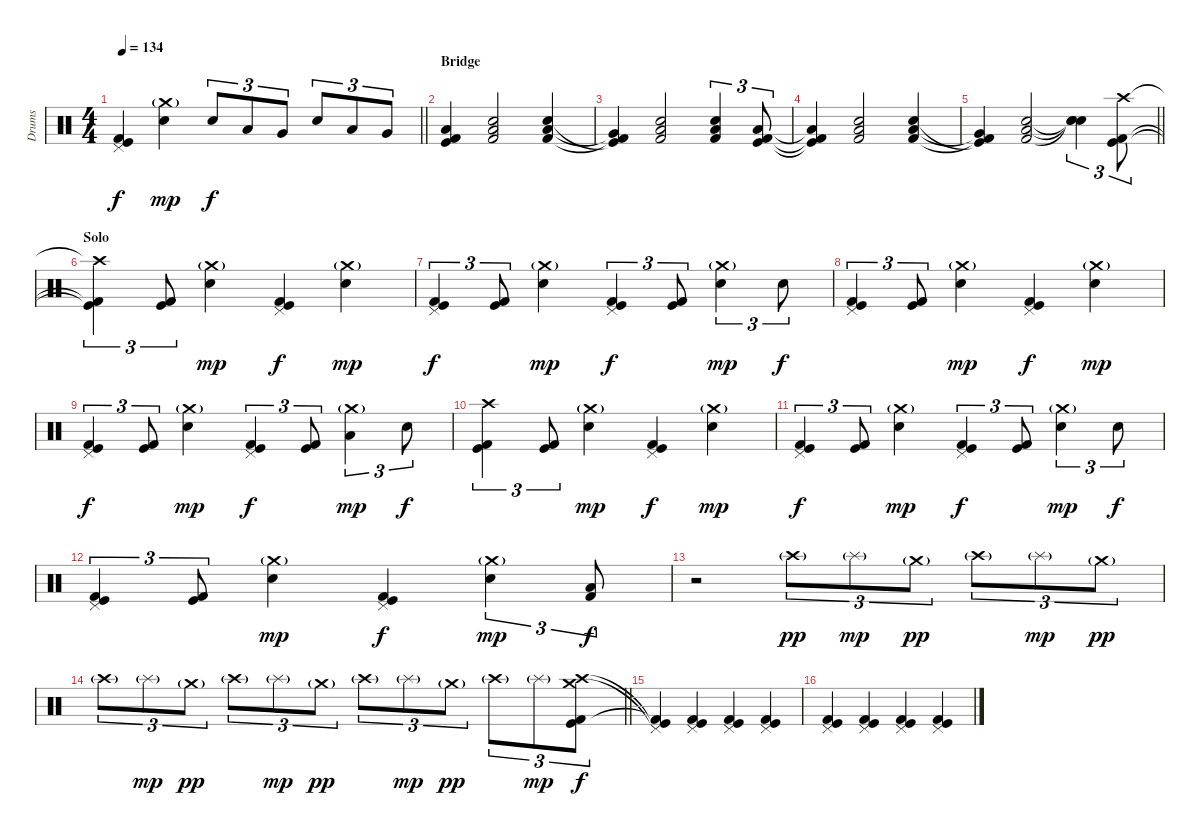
\track ("Drums" "Drums") {instrument percussion}
\staff {score}
\articulation defaults
\ts (4 4)
\tempo 134
\clef neutral
\barLineRight lightlight
\ks c
("Pedal Hi-Hat (hit)" "Kick (hit)" "Kick (hit) 2").4{dy f} ("Crash medium (hit)"{g} "Electric Snare (hit)").4{dy mp} "Electric Snare (hit)".8{tu (3 2) dy f} "Low Tom (hit)".8{tu (3 2)} "Very Low Tom (hit)".8{tu (3 2)} "Electric Snare (hit)".8{tu (3 2)} "Low Tom (hit)".8{tu (3 2)} "Very Low Tom (hit)".8{tu (3 2)} |
\section ("" "Bridge")
("Kick (hit)" "Kick (hit) 2" "Low Floor Tom (hit)").4 ("Electric Snare (hit)" "Kick (hit) 2" "Low Floor Tom (hit)").2 ("Electric Snare (hit)" "Kick (hit) 2" "Low Floor Tom (hit)").4 |
("Kick (hit)"{t} "Kick (hit) 2"{t} "Very Low Tom (hit)"{t}).4 ("Electric Snare (hit)" "Kick (hit) 2" "Low Floor Tom (hit)").2 ("Electric Snare (hit)" "Kick (hit) 2" "Low Floor Tom (hit)").4{tu (3 2)} ("Kick (hit)" "Kick (hit) 2" "Low Floor Tom (hit)").8{tu (3 2)} |
("Kick (hit)"{t} "Kick (hit) 2"{t} "Low Floor Tom (hit)"{t}).4 ("Electric Snare (hit)" "Kick (hit) 2" "Low Floor Tom (hit)").2 ("Electric Snare (hit)" "Kick (hit) 2" "Low Floor Tom (hit)").4 |
\barLineRight lightlight
("Kick (hit)"{t} "Kick (hit) 2"{t} "Very Low Tom (hit)"{t}).4 ("Electric Snare (hit)" "Kick (hit) 2" "Low Floor Tom (hit)").2 ("Snare (hit)"{t} "Snare (hit)"{t} "Snare (hit)"{t}).4{tu (3 2)} ("Crash high (hit)" "Kick (hit)" "Kick (hit) 2").8{tu (3 2)} |
\section ("" "Solo")
("Crash high (hit)"{t} "Kick (hit)"{t} "Kick (hit) 2"{t}).4{tu (3 2)} ("Kick (hit)" "Kick (hit) 2").8{tu (3 2)} ("Crash medium (hit)"{g} "Electric Snare (hit)").4{dy mp} ("Pedal Hi-Hat (hit)" "Kick (hit)" "Kick (hit) 2").4{dy f} ("Crash medium (hit)"{g} "Electric Snare (hit)").4{dy mp} |
("Pedal Hi-Hat (hit)" "Kick (hit)" "Kick (hit) 2").4{tu (3 2) dy f} ("Kick (hit)" "Kick (hit) 2").8{tu (3 2)} ("Crash medium (hit)"{g} "Electric Snare (hit)").4{dy mp} ("Pedal Hi-Hat (hit)" "Kick (hit)" "Kick (hit) 2").4{tu (3 2) dy f} ("Kick (hit)" "Kick (hit) 2").8{tu (3 2)} ("Crash medium (hit)"{g} "Electric Snare (hit)").4{tu (3 2) dy mp} "Electric Snare (hit)".8{tu (3 2) dy f} |
("Pedal Hi-Hat (hit)" "Kick (hit)" "Kick (hit) 2").4{tu (3 2)} ("Kick (hit)" "Kick (hit) 2").8{tu (3 2)} ("Crash medium (hit)"{g} "Electric Snare (hit)").4{dy mp} ("Pedal Hi-Hat (hit)" "Kick (hit)" "Kick (hit) 2").4{dy f} ("Crash medium (hit)"{g} "Electric Snare (hit)").4{dy mp} |
("Pedal Hi-Hat (hit)" "Kick (hit)" "Kick (hit) 2").4{tu (3 2) dy f} ("Kick (hit)" "Kick (hit) 2").8{tu (3 2)} ("Crash medium (hit)"{g} "Electric Snare (hit)").4{dy mp} ("Pedal Hi-Hat (hit)" "Kick (hit)" "Kick (hit) 2").4{tu (3 2) dy f} ("Kick (hit)" "Kick (hit) 2").8{tu (3 2)} ("Crash medium (hit)"{g} "Low Tom (hit)").4{tu (3 2) dy mp} "Electric Snare (hit)".8{tu (3 2) dy f} |
("Crash high (hit)" "Kick (hit)" "Kick (hit) 2").4{tu (3 2)} ("Kick (hit)" "Kick (hit) 2").8{tu (3 2)} ("Crash medium (hit)"{g} "Electric Snare (hit)").4{dy mp} ("Pedal Hi-Hat (hit)" "Kick (hit)" "Kick (hit) 2").4{dy f} ("Crash medium (hit)"{g} "Electric Snare (hit)").4{dy mp} |
("Pedal Hi-Hat (hit)" "Kick (hit)" "Kick (hit) 2").4{tu (3 2) dy f} ("Kick (hit)" "Kick (hit) 2").8{tu (3 2)} ("Crash medium (hit)"{g} "Electric Snare (hit)").4{dy mp} ("Pedal Hi-Hat (hit)" "Kick (hit)" "Kick (hit) 2").4{tu (3 2) dy f} ("Kick (hit)" "Kick (hit) 2").8{tu (3 2)} ("Crash medium (hit)"{g} "Electric Snare (hit)").4{tu (3 2) dy mp} "Electric Snare (hit)".8{tu (3 2) dy f} |
("Pedal Hi-Hat (hit)" "Kick (hit)" "Kick (hit) 2").4{tu (3 2)} ("Kick (hit)" "Kick (hit) 2").8{tu (3 2)} ("Crash medium (hit)"{g} "Electric Snare (hit)").4{dy mp} ("Pedal Hi-Hat (hit)" "Kick (hit)" "Kick (hit) 2").4{dy f} ("Crash medium (hit)"{g} "Electric Snare (hit)").4{tu (3 2) dy mp} ("Kick (hit) 2" "Low Floor Tom (hit)").8{tu (3 2) dy f} |
r.2 "Crash high (hit)"{g}.8{tu (3 2) dy pp} "Splash (hit)"{g}.8{tu (3 2) dy mp} "Crash medium (hit)"{g}.8{tu (3 2) dy pp} "Crash high (hit)"{g}.8{tu (3 2)} "Splash (hit)"{g}.8{tu (3 2) dy mp} "Crash medium (hit)"{g}.8{tu (3 2) dy pp} |
\barLineRight lightlight "Crash high (hit)"{g}.8{tu (3 2)} "Splash (hit)"{g}.8{tu (3 2) dy mp} "Crash medium (hit)"{g}.8{tu (3 2) dy pp} "Crash high (hit)"{g}.8{tu (3 2)} "Splash (hit)"{g}.8{tu (3 2) dy mp} "Crash medium (hit)"{g}.8{tu (3 2) dy pp} "Crash high (hit)"{g}.8{tu (3 2)} "Splash (hit)"{g}.8{tu (3 2) dy mp} "Crash medium (hit)"{g}.8{tu (3 2) dy pp} "Crash high (hit)"{g}.8{tu (3 2)} "Splash (hit)"{g}.8{tu (3 2) dy mp}
("Crash medium (hit)" "Crash high (hit)" "Kick (hit)" "Kick (hit) 2").8{tu (3 2) dy f} |
\section ("" "")
("Pedal Hi-Hat (hit)"{t} "Kick (hit)"{t} "Kick (hit) 2"{t}).4 ("Pedal Hi-Hat (hit)" "Kick (hit)" "Kick (hit) 2").4 ("Pedal Hi-Hat (hit)" "Kick (hit)" "Kick (hit) 2").4 ("Pedal Hi-Hat (hit)" "Kick (hit)" "Kick (hit) 2").4 |
("Pedal Hi-Hat (hit)" "Kick (hit)" "Kick (hit) 2").4 ("Pedal Hi-Hat (hit)" "Kick (hit)" "Kick (hit) 2").4 ("Pedal Hi-Hat (hit)" "Kick (hit)" "Kick (hit) 2").4 ("Pedal Hi-Hat (hit)" "Kick (hit)" "Kick (hit) 2").4
